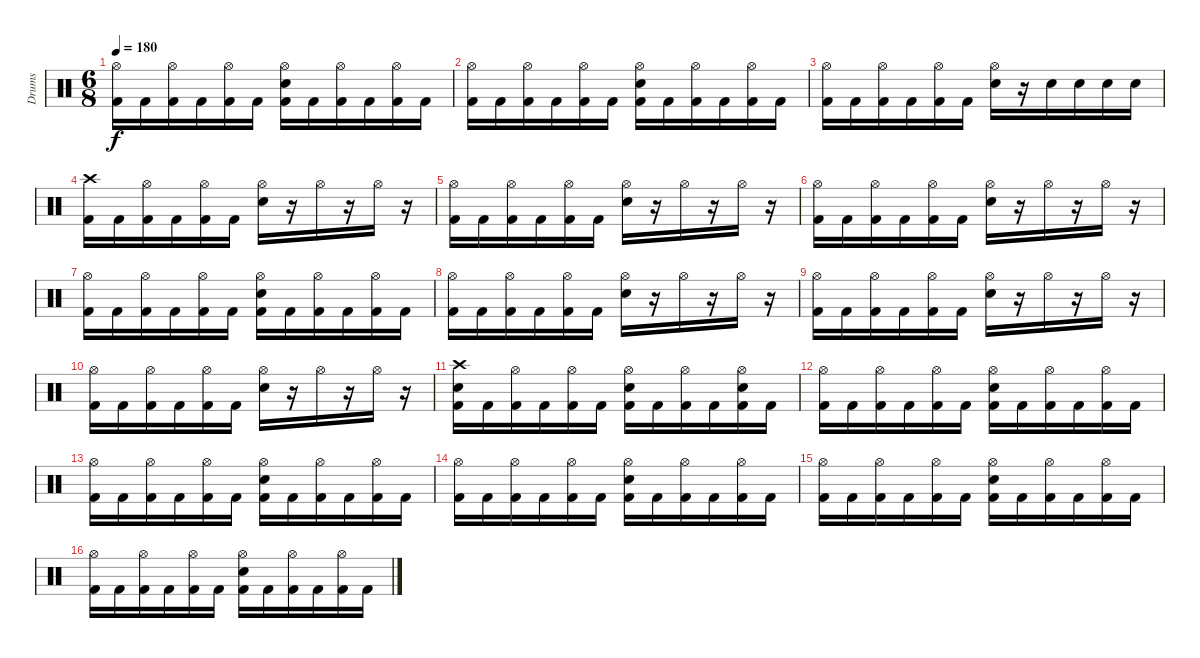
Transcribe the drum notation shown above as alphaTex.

\track ("Drums" "Drums") {instrument percussion}
\staff {score}
\articulation defaults
\ts (6 8)
\tempo 180
\clef neutral
\ks c
("Kick (hit) 2" "Hi-Hat (open)").16{dy f} "Kick (hit) 2".16 ("Kick (hit) 2" "Hi-Hat (open)").16 "Kick (hit) 2".16 ("Kick (hit) 2" "Hi-Hat (open)").16 "Kick (hit) 2".16 ("Kick (hit) 2" "Electric Snare (hit)" "Hi-Hat (open)").16 "Kick (hit) 2".16 ("Kick (hit) 2" "Hi-Hat (open)").16 "Kick (hit) 2".16 ("Kick (hit) 2" "Hi-Hat (open)").16 "Kick (hit) 2".16 |
("Kick (hit) 2" "Hi-Hat (open)").16 "Kick (hit) 2".16 ("Kick (hit) 2" "Hi-Hat (open)").16 "Kick (hit) 2".16 ("Kick (hit) 2" "Hi-Hat (open)").16 "Kick (hit) 2".16 ("Kick (hit) 2" "Electric Snare (hit)" "Hi-Hat (open)").16 "Kick (hit) 2".16 ("Kick (hit) 2" "Hi-Hat (open)").16 "Kick (hit) 2".16 ("Kick (hit) 2" "Hi-Hat (open)").16 "Kick (hit) 2".16 |
("Kick (hit) 2" "Hi-Hat (open)").16 "Kick (hit) 2".16 ("Kick (hit) 2" "Hi-Hat (open)").16 "Kick (hit) 2".16 ("Kick (hit) 2" "Hi-Hat (open)").16 "Kick (hit) 2".16 ("Electric Snare (hit)" "Hi-Hat (open)").16 r.16 "Electric Snare (hit)".16 "Electric Snare (hit)".16 "Electric Snare (hit)".16 "Electric Snare (hit)".16 |
("Kick (hit) 2" "Crash high (hit)").16 "Kick (hit) 2".16 ("Kick (hit) 2" "Hi-Hat (open)").16 "Kick (hit) 2".16 ("Kick (hit) 2" "Hi-Hat (open)").16 "Kick (hit) 2".16 ("Electric Snare (hit)" "Hi-Hat (open)").16 r.16 "Hi-Hat (open)".16 r.16 "Hi-Hat (open)".16 r.16 |
("Kick (hit) 2" "Hi-Hat (open)").16 "Kick (hit) 2".16 ("Kick (hit) 2" "Hi-Hat (open)").16 "Kick (hit) 2".16 ("Kick (hit) 2" "Hi-Hat (open)").16 "Kick (hit) 2".16 ("Electric Snare (hit)" "Hi-Hat (open)").16 r.16 "Hi-Hat (open)".16 r.16 "Hi-Hat (open)".16 r.16 |
("Kick (hit) 2" "Hi-Hat (open)").16 "Kick (hit) 2".16 ("Kick (hit) 2" "Hi-Hat (open)").16 "Kick (hit) 2".16 ("Kick (hit) 2" "Hi-Hat (open)").16 "Kick (hit) 2".16 ("Electric Snare (hit)" "Hi-Hat (open)").16 r.16 "Hi-Hat (open)".16 r.16 "Hi-Hat (open)".16 r.16 |
("Kick (hit) 2" "Hi-Hat (open)").16 "Kick (hit) 2".16 ("Kick (hit) 2" "Hi-Hat (open)").16 "Kick (hit) 2".16 ("Kick (hit) 2" "Hi-Hat (open)").16 "Kick (hit) 2".16 ("Kick (hit) 2" "Electric Snare (hit)" "Hi-Hat (open)").16 "Kick (hit) 2".16 ("Kick (hit) 2" "Hi-Hat (open)").16 "Kick (hit) 2".16 ("Kick (hit) 2" "Hi-Hat (open)").16 "Kick (hit) 2".16 |
("Kick (hit) 2" "Hi-Hat (open)").16 "Kick (hit) 2".16 ("Kick (hit) 2" "Hi-Hat (open)").16 "Kick (hit) 2".16 ("Kick (hit) 2" "Hi-Hat (open)").16 "Kick (hit) 2".16 ("Electric Snare (hit)" "Hi-Hat (open)").16 r.16 "Hi-Hat (open)".16 r.16 "Hi-Hat (open)".16 r.16 |
("Kick (hit) 2" "Hi-Hat (open)").16 "Kick (hit) 2".16 ("Kick (hit) 2" "Hi-Hat (open)").16 "Kick (hit) 2".16 ("Kick (hit) 2" "Hi-Hat (open)").16 "Kick (hit) 2".16 ("Electric Snare (hit)" "Hi-Hat (open)").16 r.16 "Hi-Hat (open)".16 r.16 "Hi-Hat (open)".16 r.16 |
("Kick (hit) 2" "Hi-Hat (open)").16 "Kick (hit) 2".16 ("Kick (hit) 2" "Hi-Hat (open)").16 "Kick (hit) 2".16 ("Kick (hit) 2" "Hi-Hat (open)").16 "Kick (hit) 2".16 ("Electric Snare (hit)" "Hi-Hat (open)").16 r.16 "Hi-Hat (open)".16 r.16 "Hi-Hat (open)".16 r.16 |
("Kick (hit) 2" "Electric Snare (hit)" "Crash high (hit)").16 "Kick (hit) 2".16 ("Kick (hit) 2" "Hi-Hat (open)").16 "Kick (hit) 2".16 ("Kick (hit) 2" "Hi-Hat (open)").16 "Kick (hit) 2".16 ("Kick (hit) 2" "Electric Snare (hit)" "Hi-Hat (open)").16 "Kick (hit) 2".16 ("Kick (hit) 2" "Hi-Hat (open)").16 "Kick (hit) 2".16 ("Kick (hit) 2" "Electric Snare (hit)" "Hi-Hat (open)").16 "Kick (hit) 2".16 |
("Kick (hit) 2" "Hi-Hat (open)").16 "Kick (hit) 2".16 ("Kick (hit) 2" "Hi-Hat (open)").16 "Kick (hit) 2".16 ("Kick (hit) 2" "Hi-Hat (open)").16 "Kick (hit) 2".16 ("Kick (hit) 2" "Electric Snare (hit)" "Hi-Hat (open)").16 "Kick (hit) 2".16 ("Kick (hit) 2" "Hi-Hat (open)").16 "Kick (hit) 2".16 ("Kick (hit) 2" "Hi-Hat (open)").16 "Kick (hit) 2".16 |
("Kick (hit) 2" "Hi-Hat (open)").16 "Kick (hit) 2".16 ("Kick (hit) 2" "Hi-Hat (open)").16 "Kick (hit) 2".16 ("Kick (hit) 2" "Hi-Hat (open)").16 "Kick (hit) 2".16 ("Kick (hit) 2" "Electric Snare (hit)" "Hi-Hat (open)").16 "Kick (hit) 2".16 ("Kick (hit) 2" "Hi-Hat (open)").16 "Kick (hit) 2".16 ("Kick (hit) 2" "Hi-Hat (open)").16 "Kick (hit) 2".16 |
("Kick (hit) 2" "Hi-Hat (open)").16 "Kick (hit) 2".16 ("Kick (hit) 2" "Hi-Hat (open)").16 "Kick (hit) 2".16 ("Kick (hit) 2" "Hi-Hat (open)").16 "Kick (hit) 2".16 ("Kick (hit) 2" "Electric Snare (hit)" "Hi-Hat (open)").16 "Kick (hit) 2".16 ("Kick (hit) 2" "Hi-Hat (open)").16 "Kick (hit) 2".16 ("Kick (hit) 2" "Hi-Hat (open)").16 "Kick (hit) 2".16 |
("Kick (hit) 2" "Hi-Hat (open)").16 "Kick (hit) 2".16 ("Kick (hit) 2" "Hi-Hat (open)").16 "Kick (hit) 2".16 ("Kick (hit) 2" "Hi-Hat (open)").16 "Kick (hit) 2".16 ("Kick (hit) 2" "Electric Snare (hit)" "Hi-Hat (open)").16 "Kick (hit) 2".16 ("Kick (hit) 2" "Hi-Hat (open)").16 "Kick (hit) 2".16 ("Kick (hit) 2" "Hi-Hat (open)").16 "Kick (hit) 2".16 |
("Kick (hit) 2" "Hi-Hat (open)").16 "Kick (hit) 2".16 ("Kick (hit) 2" "Hi-Hat (open)").16 "Kick (hit) 2".16 ("Kick (hit) 2" "Hi-Hat (open)").16 "Kick (hit) 2".16 ("Kick (hit) 2" "Electric Snare (hit)" "Hi-Hat (open)").16 "Kick (hit) 2".16 ("Kick (hit) 2" "Hi-Hat (open)").16 "Kick (hit) 2".16 ("Kick (hit) 2" "Hi-Hat (open)").16 "Kick (hit) 2".16
